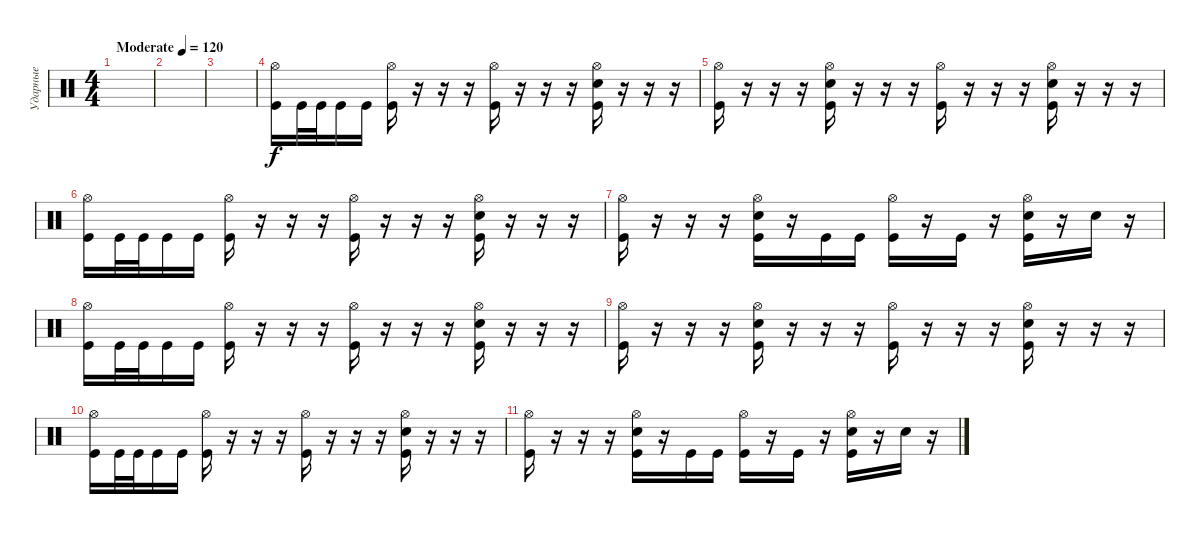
\track ("Ударные" "Ударные") {instrument percussion}
\staff {score}
\articulation defaults
\ts (4 4)
\tempo (120 "Moderate")
\clef neutral
\ks c
|
|
|
("Hi-Hat (open)" "Kick (hit)").16 "Kick (hit)".32 "Kick (hit)".32 "Kick (hit)".16 "Kick (hit)".16 ("Hi-Hat (open)" "Kick (hit)").16 r.16 r.16 r.16 ("Hi-Hat (open)" "Kick (hit)").16 r.16 r.16 r.16 ("Hi-Hat (open)" "Electric Snare (hit)" "Kick (hit)").16 r.16 r.16 r.16 |
("Hi-Hat (open)" "Kick (hit)").16 r.16 r.16 r.16 ("Hi-Hat (open)" "Electric Snare (hit)" "Kick (hit)").16 r.16 r.16 r.16 ("Hi-Hat (open)" "Kick (hit)").16 r.16 r.16 r.16 ("Hi-Hat (open)" "Electric Snare (hit)" "Kick (hit)").16 r.16 r.16 r.16 |
("Hi-Hat (open)" "Kick (hit)").16 "Kick (hit)".32 "Kick (hit)".32 "Kick (hit)".16 "Kick (hit)".16 ("Hi-Hat (open)" "Kick (hit)").16 r.16 r.16 r.16 ("Hi-Hat (open)" "Kick (hit)").16 r.16 r.16 r.16 ("Hi-Hat (open)" "Electric Snare (hit)" "Kick (hit)").16 r.16 r.16 r.16 |
("Hi-Hat (open)" "Kick (hit)").16 r.16 r.16 r.16 ("Hi-Hat (open)" "Electric Snare (hit)" "Kick (hit)").16 r.16 "Kick (hit)".16 "Kick (hit)".16 ("Hi-Hat (open)" "Kick (hit)").16 r.16 "Kick (hit)".16 r.16 ("Hi-Hat (open)" "Electric Snare (hit)" "Kick (hit)").16 r.16 "Electric Snare (hit)".16 r.16 |
("Hi-Hat (open)" "Kick (hit)").16 "Kick (hit)".32 "Kick (hit)".32 "Kick (hit)".16 "Kick (hit)".16 ("Hi-Hat (open)" "Kick (hit)").16 r.16 r.16 r.16 ("Hi-Hat (open)" "Kick (hit)").16 r.16 r.16 r.16 ("Hi-Hat (open)" "Electric Snare (hit)" "Kick (hit)").16 r.16 r.16 r.16 |
("Hi-Hat (open)" "Kick (hit)").16 r.16 r.16 r.16 ("Hi-Hat (open)" "Electric Snare (hit)" "Kick (hit)").16 r.16 r.16 r.16 ("Hi-Hat (open)" "Kick (hit)").16 r.16 r.16 r.16 ("Hi-Hat (open)" "Electric Snare (hit)" "Kick (hit)").16 r.16 r.16 r.16 |
("Hi-Hat (open)" "Kick (hit)").16 "Kick (hit)".32 "Kick (hit)".32 "Kick (hit)".16 "Kick (hit)".16 ("Hi-Hat (open)" "Kick (hit)").16 r.16 r.16 r.16 ("Hi-Hat (open)" "Kick (hit)").16 r.16 r.16 r.16 ("Hi-Hat (open)" "Electric Snare (hit)" "Kick (hit)").16 r.16 r.16 r.16 |
("Hi-Hat (open)" "Kick (hit)").16 r.16 r.16 r.16 ("Hi-Hat (open)" "Electric Snare (hit)" "Kick (hit)").16 r.16 "Kick (hit)".16 "Kick (hit)".16 ("Hi-Hat (open)" "Kick (hit)").16 r.16 "Kick (hit)".16 r.16 ("Hi-Hat (open)" "Electric Snare (hit)" "Kick (hit)").16 r.16 "Electric Snare (hit)".16 r.16
